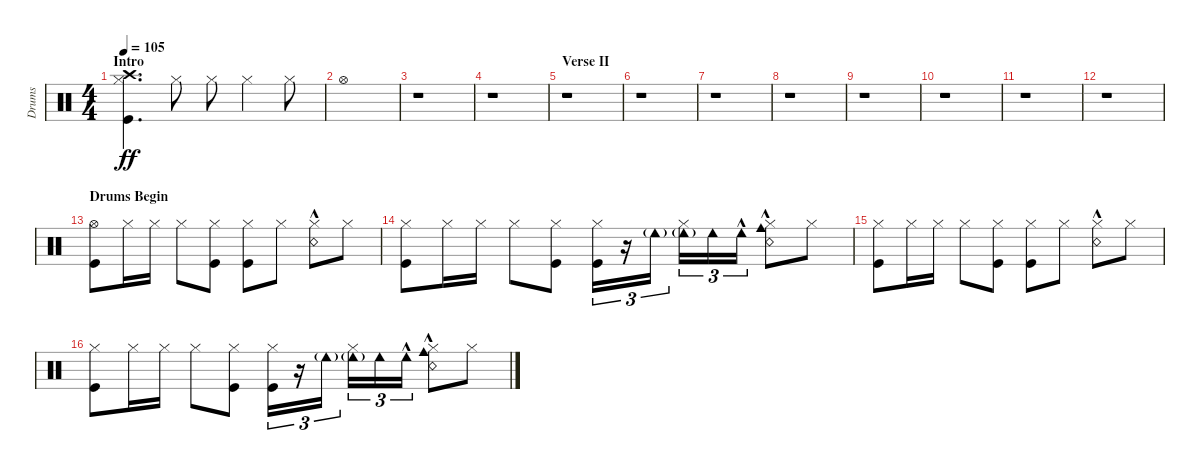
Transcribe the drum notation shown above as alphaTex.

\defaultSystemsLayout 4
\otherSystemsTrackNameOrientation horizontal
\chordDiagramsInScore
\track ("Drumkit" "Drums") {instrument percussion}
\staff {score}
\articulation defaults
\ts (4 4)
\section ("" "Intro")
\tempo 105
\clef neutral
\scale
0.5
\ks c
("Kick (hit)" "Hi-Hat (closed)" "Crash high (hit)").4{d dy ff} "Hi-Hat (closed)".8 "Hi-Hat (closed)".8 "Hi-Hat (closed)".4 "Hi-Hat (closed)".8 |
\scale
0.5 "Hi-Hat (open)".1 |
\scale
0.5 r.1 |
\scale
0.5 r.1 |
\section ("" "Verse II")
\scale
0.5 r.1 |
\scale
0.5 r.1 |
\scale
0.5 r.1 |
\scale
0.5 r.1 |
\scale
0.5 r.1 |
\scale
0.5 r.1 |
\scale
0.5 r.1 |
r.1 |
\section ("" "Drums Begin")
\scale
0.5 ("Kick (hit)" "Hi-Hat (open)").8 "Hi-Hat (closed)".16 "Hi-Hat (closed)".16 "Hi-Hat (closed)".8 ("Kick (hit)" "Hi-Hat (closed)").8 ("Kick (hit)" "Hi-Hat (closed)").8 "Hi-Hat (closed)".8 ("Snare (rim shot)"{hac} "Hi-Hat (closed)").8 "Hi-Hat (closed)".8 |
\scale
0.5 ("Kick (hit)" "Hi-Hat (closed)").8 "Hi-Hat (closed)".16 "Hi-Hat (closed)".16 "Hi-Hat (closed)".8 ("Kick (hit)" "Hi-Hat (closed)").8 ("Kick (hit)" "Hi-Hat (closed)").16{tu (3 2)} r.16{tu (3 2)} "Cowbell low (hit)"{g}.16{tu (3 2)} ("Hi-Hat (closed)" "Cowbell low (hit)"{g}).16{tu (3 2)} "Cowbell low (hit)".16{tu (3 2)} "Cowbell low (hit)"{hac}.16{tu (3 2)} ("Snare (rim shot)"{hac} "Hi-Hat (closed)" "Cowbell medium (hit)"{hac}).8 "Hi-Hat (closed)".8 |
\scale
0.5 ("Kick (hit)" "Hi-Hat (closed)").8 "Hi-Hat (closed)".16 "Hi-Hat (closed)".16 "Hi-Hat (closed)".8 ("Kick (hit)" "Hi-Hat (closed)").8 ("Kick (hit)" "Hi-Hat (closed)").8 "Hi-Hat (closed)".8 ("Snare (rim shot)"{hac} "Hi-Hat (closed)").8 "Hi-Hat (closed)".8 |
\scale
0.5 ("Kick (hit)" "Hi-Hat (closed)").8 "Hi-Hat (closed)".16 "Hi-Hat (closed)".16 "Hi-Hat (closed)".8 ("Kick (hit)" "Hi-Hat (closed)").8 ("Kick (hit)" "Hi-Hat (closed)").16{tu (3 2)} r.16{tu (3 2)} "Cowbell low (hit)"{g}.16{tu (3 2)} ("Hi-Hat (closed)" "Cowbell low (hit)"{g}).16{tu (3 2)} "Cowbell low (hit)".16{tu (3 2)} "Cowbell low (hit)"{hac}.16{tu (3 2)} ("Snare (rim shot)"{hac} "Hi-Hat (closed)" "Cowbell medium (hit)"{hac}).8 "Hi-Hat (closed)".8
